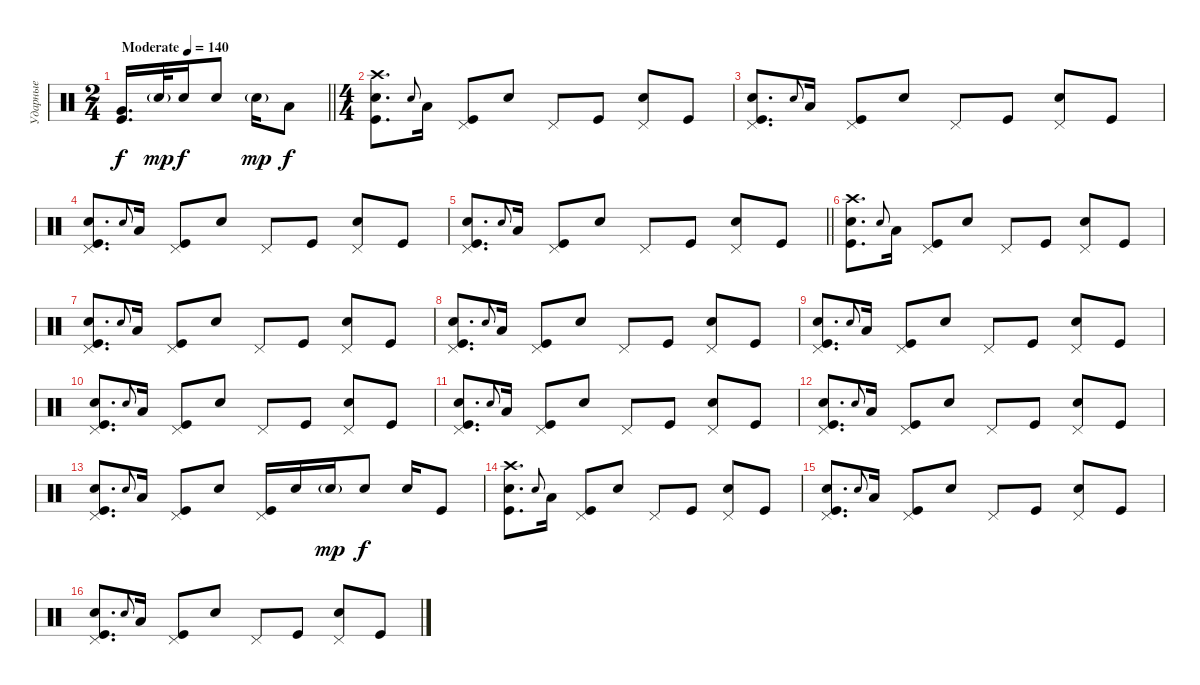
\track ("Ударные" "Ударные") {instrument percussion}
\staff {score}
\articulation defaults
\ts (2 4)
\tempo (140 "Moderate")
\clef neutral
\barLineRight lightlight
\ks c
("Very Low Tom (hit)" "Kick (hit)").16{d dy f} "Electric Snare (hit)"{g}.32{dy mp} "Snare (hit) 2".16{dy f} "Snare (hit) 2".8 "Snare (hit) 2"{g}.16{dy mp} "Low Tom (hit)".8{dy f} |
\ts (4 4)
("Crash high (hit)" "Snare (hit) 2" "Kick (hit)").8{d} "Snare (hit) 2"{x}.8{gr onbeat} "Low Tom (hit)".16 ("Pedal Hi-Hat (hit)" "Kick (hit)").8 "Snare (hit) 2".8 "Pedal Hi-Hat (hit)".8 "Kick (hit)".8 ("Pedal Hi-Hat (hit)" "Electric Snare (hit)").8 "Kick (hit)".8 |
("Pedal Hi-Hat (hit)" "Snare (hit) 2" "Kick (hit)").8{d} "Snare (hit) 2"{x}.8{gr onbeat} "Low Tom (hit)".16 ("Pedal Hi-Hat (hit)" "Kick (hit)").8 "Snare (hit) 2".8 "Pedal Hi-Hat (hit)".8 "Kick (hit)".8 ("Pedal Hi-Hat (hit)" "Electric Snare (hit)").8 "Kick (hit)".8 |
("Pedal Hi-Hat (hit)" "Snare (hit) 2" "Kick (hit)").8{d} "Snare (hit) 2"{x}.8{gr onbeat} "Low Tom (hit)".16 ("Pedal Hi-Hat (hit)" "Kick (hit)").8 "Snare (hit) 2".8 "Pedal Hi-Hat (hit)".8 "Kick (hit)".8 ("Pedal Hi-Hat (hit)" "Electric Snare (hit)").8 "Kick (hit)".8 |
\barLineRight lightlight
("Pedal Hi-Hat (hit)" "Snare (hit) 2" "Kick (hit)").8{d} "Snare (hit) 2"{x}.8{gr onbeat} "Low Tom (hit)".16 ("Pedal Hi-Hat (hit)" "Kick (hit)").8 "Snare (hit) 2".8 "Pedal Hi-Hat (hit)".8 "Kick (hit)".8 ("Pedal Hi-Hat (hit)" "Electric Snare (hit)").8 "Kick (hit)".8 |
("Crash high (hit)" "Snare (hit) 2" "Kick (hit)").8{d} "Snare (hit) 2"{x}.8{gr onbeat} "Low Tom (hit)".16 ("Pedal Hi-Hat (hit)" "Kick (hit)").8 "Snare (hit) 2".8 "Pedal Hi-Hat (hit)".8 "Kick (hit)".8 ("Pedal Hi-Hat (hit)" "Electric Snare (hit)").8 "Kick (hit)".8 |
("Pedal Hi-Hat (hit)" "Snare (hit) 2" "Kick (hit)").8{d} "Snare (hit) 2"{x}.8{gr onbeat} "Low Tom (hit)".16 ("Pedal Hi-Hat (hit)" "Kick (hit)").8 "Snare (hit) 2".8 "Pedal Hi-Hat (hit)".8 "Kick (hit)".8 ("Pedal Hi-Hat (hit)" "Electric Snare (hit)").8 "Kick (hit)".8 |
("Pedal Hi-Hat (hit)" "Snare (hit) 2" "Kick (hit)").8{d} "Snare (hit) 2"{x}.8{gr onbeat} "Low Tom (hit)".16 ("Pedal Hi-Hat (hit)" "Kick (hit)").8 "Snare (hit) 2".8 "Pedal Hi-Hat (hit)".8 "Kick (hit)".8 ("Pedal Hi-Hat (hit)" "Electric Snare (hit)").8 "Kick (hit)".8 |
("Pedal Hi-Hat (hit)" "Snare (hit) 2" "Kick (hit)").8{d} "Snare (hit) 2"{x}.8{gr onbeat} "Low Tom (hit)".16 ("Pedal Hi-Hat (hit)" "Kick (hit)").8 "Snare (hit) 2".8 "Pedal Hi-Hat (hit)".8 "Kick (hit)".8 ("Pedal Hi-Hat (hit)" "Electric Snare (hit)").8 "Kick (hit)".8 |
("Pedal Hi-Hat (hit)" "Snare (hit) 2" "Kick (hit)").8{d} "Snare (hit) 2"{x}.8{gr onbeat} "Low Tom (hit)".16 ("Pedal Hi-Hat (hit)" "Kick (hit)").8 "Snare (hit) 2".8 "Pedal Hi-Hat (hit)".8 "Kick (hit)".8 ("Pedal Hi-Hat (hit)" "Electric Snare (hit)").8 "Kick (hit)".8 |
("Pedal Hi-Hat (hit)" "Snare (hit) 2" "Kick (hit)").8{d} "Snare (hit) 2"{x}.8{gr onbeat} "Low Tom (hit)".16 ("Pedal Hi-Hat (hit)" "Kick (hit)").8 "Snare (hit) 2".8 "Pedal Hi-Hat (hit)".8 "Kick (hit)".8 ("Pedal Hi-Hat (hit)" "Electric Snare (hit)").8 "Kick (hit)".8 |
("Pedal Hi-Hat (hit)" "Snare (hit) 2" "Kick (hit)").8{d} "Snare (hit) 2"{x}.8{gr onbeat} "Low Tom (hit)".16 ("Pedal Hi-Hat (hit)" "Kick (hit)").8 "Snare (hit) 2".8 "Pedal Hi-Hat (hit)".8 "Kick (hit)".8 ("Pedal Hi-Hat (hit)" "Electric Snare (hit)").8 "Kick (hit)".8 |
("Pedal Hi-Hat (hit)" "Snare (hit) 2" "Kick (hit)").8{d} "Snare (hit) 2"{x}.8{gr onbeat} "Low Tom (hit)".16 ("Pedal Hi-Hat (hit)" "Kick (hit)").8 "Snare (hit) 2".8 ("Pedal Hi-Hat (hit)" "Kick (hit)").16 "Snare (hit) 2".16 "Snare (hit) 2"{g}.16{dy mp} "Snare (hit) 2".8{dy f} "Snare (hit) 2".16 "Kick (hit)".8 |
("Crash high (hit)" "Snare (hit) 2" "Kick (hit)").8{d} "Snare (hit) 2"{x}.8{gr onbeat} "Low Tom (hit)".16 ("Pedal Hi-Hat (hit)" "Kick (hit)").8 "Snare (hit) 2".8 "Pedal Hi-Hat (hit)".8 "Kick (hit)".8 ("Pedal Hi-Hat (hit)" "Electric Snare (hit)").8 "Kick (hit)".8 |
("Pedal Hi-Hat (hit)" "Snare (hit) 2" "Kick (hit)").8{d} "Snare (hit) 2"{x}.8{gr onbeat} "Low Tom (hit)".16 ("Pedal Hi-Hat (hit)" "Kick (hit)").8 "Snare (hit) 2".8 "Pedal Hi-Hat (hit)".8 "Kick (hit)".8 ("Pedal Hi-Hat (hit)" "Electric Snare (hit)").8 "Kick (hit)".8 |
("Pedal Hi-Hat (hit)" "Snare (hit) 2" "Kick (hit)").8{d} "Snare (hit) 2"{x}.8{gr onbeat} "Low Tom (hit)".16 ("Pedal Hi-Hat (hit)" "Kick (hit)").8 "Snare (hit) 2".8 "Pedal Hi-Hat (hit)".8 "Kick (hit)".8 ("Pedal Hi-Hat (hit)" "Electric Snare (hit)").8 "Kick (hit)".8
